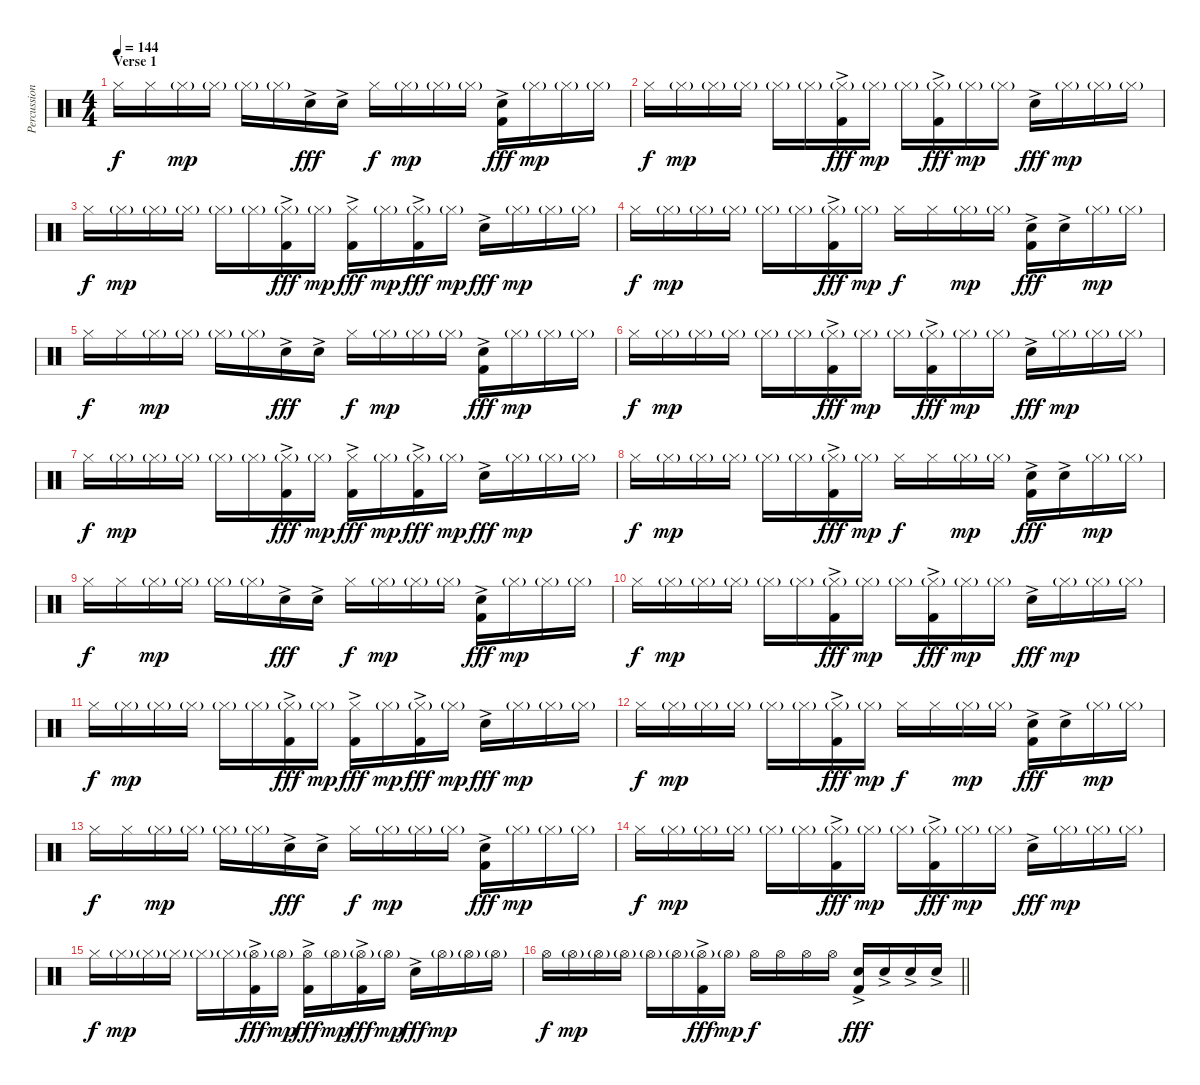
\track ("Percussion" "Percussion") {instrument percussion}
\staff {score}
\articulation defaults
\ts (4 4)
\section ("" "Verse 1")
\tempo 144
\clef neutral
\ks c "Hi-Hat (closed)".16{dy f} "Hi-Hat (closed)".16 "Hi-Hat (closed)"{g}.16{dy mp} "Hi-Hat (closed)"{g}.16 "Hi-Hat (closed)"{g}.16 "Hi-Hat (closed)"{g}.16 "Electric Snare (hit)"{ac}.16{dy fff} "Electric Snare (hit)"{ac}.16 "Hi-Hat (closed)".16{dy f} "Hi-Hat (closed)"{g}.16{dy mp} "Hi-Hat (closed)"{g}.16 "Hi-Hat (closed)"{g}.16
("Electric Snare (hit)"{ac} "Kick (hit) 2"{ac}).16{dy fff} "Hi-Hat (closed)"{g}.16{dy mp} "Hi-Hat (closed)"{g}.16 "Hi-Hat (closed)"{g}.16 |
"Hi-Hat (closed)".16{dy f} "Hi-Hat (closed)"{g}.16{dy mp} "Hi-Hat (closed)"{g}.16 "Hi-Hat (closed)"{g}.16 "Hi-Hat (closed)"{g}.16 "Hi-Hat (closed)"{g}.16 ("Hi-Hat (closed)"{g} "Kick (hit) 2"{ac}).16{dy fff} "Hi-Hat (closed)"{g}.16{dy mp} "Hi-Hat (closed)"{g}.16 ("Hi-Hat (closed)"{g} "Kick (hit) 2"{ac}).16{dy fff} "Hi-Hat (closed)"{g}.16{dy mp} "Hi-Hat (closed)"{g}.16 "Electric Snare (hit)"{ac}.16{dy fff} "Hi-Hat (closed)"{g}.16{dy mp} "Hi-Hat (closed)"{g}.16 "Hi-Hat (closed)"{g}.16 |
"Hi-Hat (closed)".16{dy f} "Hi-Hat (closed)"{g}.16{dy mp} "Hi-Hat (closed)"{g}.16 "Hi-Hat (closed)"{g}.16 "Hi-Hat (closed)"{g}.16 "Hi-Hat (closed)"{g}.16 ("Hi-Hat (closed)"{g} "Kick (hit) 2"{ac}).16{dy fff} "Hi-Hat (closed)"{g}.16{dy mp} ("Hi-Hat (closed)" "Kick (hit) 2"{ac}).16{dy fff} "Hi-Hat (closed)"{g}.16{dy mp} ("Hi-Hat (closed)"{g} "Kick (hit) 2"{ac}).16{dy fff} "Hi-Hat (closed)"{g}.16{dy mp} "Electric Snare (hit)"{ac}.16{dy fff} "Hi-Hat (closed)"{g}.16{dy mp} "Hi-Hat (closed)"{g}.16 "Hi-Hat (closed)"{g}.16 |
"Hi-Hat (closed)".16{dy f} "Hi-Hat (closed)"{g}.16{dy mp} "Hi-Hat (closed)"{g}.16 "Hi-Hat (closed)"{g}.16 "Hi-Hat (closed)"{g}.16 "Hi-Hat (closed)"{g}.16 ("Hi-Hat (closed)"{g} "Kick (hit) 2"{ac}).16{dy fff} "Hi-Hat (closed)"{g}.16{dy mp} "Hi-Hat (closed)".16{dy f} "Hi-Hat (closed)".16 "Hi-Hat (closed)"{g}.16{dy mp} "Hi-Hat (closed)"{g}.16 ("Electric Snare (hit)"{ac} "Kick (hit) 2"{ac}).16{dy fff} "Electric Snare (hit)"{ac}.16 "Hi-Hat (closed)"{g}.16{dy mp} "Hi-Hat (closed)"{g}.16 |
"Hi-Hat (closed)".16{dy f} "Hi-Hat (closed)".16 "Hi-Hat (closed)"{g}.16{dy mp} "Hi-Hat (closed)"{g}.16 "Hi-Hat (closed)"{g}.16 "Hi-Hat (closed)"{g}.16 "Electric Snare (hit)"{ac}.16{dy fff} "Electric Snare (hit)"{ac}.16 "Hi-Hat (closed)".16{dy f} "Hi-Hat (closed)"{g}.16{dy mp} "Hi-Hat (closed)"{g}.16 "Hi-Hat (closed)"{g}.16 ("Electric Snare (hit)"{ac} "Kick (hit) 2"{ac}).16{dy fff} "Hi-Hat (closed)"{g}.16{dy mp} "Hi-Hat (closed)"{g}.16 "Hi-Hat (closed)"{g}.16 |
"Hi-Hat (closed)".16{dy f} "Hi-Hat (closed)"{g}.16{dy mp} "Hi-Hat (closed)"{g}.16 "Hi-Hat (closed)"{g}.16 "Hi-Hat (closed)"{g}.16 "Hi-Hat (closed)"{g}.16 ("Hi-Hat (closed)"{g} "Kick (hit) 2"{ac}).16{dy fff} "Hi-Hat (closed)"{g}.16{dy mp} "Hi-Hat (closed)"{g}.16 ("Hi-Hat (closed)"{g} "Kick (hit) 2"{ac}).16{dy fff} "Hi-Hat (closed)"{g}.16{dy mp} "Hi-Hat (closed)"{g}.16 "Electric Snare (hit)"{ac}.16{dy fff} "Hi-Hat (closed)"{g}.16{dy mp} "Hi-Hat (closed)"{g}.16 "Hi-Hat (closed)"{g}.16 |
"Hi-Hat (closed)".16{dy f} "Hi-Hat (closed)"{g}.16{dy mp} "Hi-Hat (closed)"{g}.16 "Hi-Hat (closed)"{g}.16 "Hi-Hat (closed)"{g}.16 "Hi-Hat (closed)"{g}.16 ("Hi-Hat (closed)"{g} "Kick (hit) 2"{ac}).16{dy fff} "Hi-Hat (closed)"{g}.16{dy mp} ("Hi-Hat (closed)" "Kick (hit) 2"{ac}).16{dy fff} "Hi-Hat (closed)"{g}.16{dy mp} ("Hi-Hat (closed)"{g} "Kick (hit) 2"{ac}).16{dy fff} "Hi-Hat (closed)"{g}.16{dy mp} "Electric Snare (hit)"{ac}.16{dy fff} "Hi-Hat (closed)"{g}.16{dy mp} "Hi-Hat (closed)"{g}.16 "Hi-Hat (closed)"{g}.16 |
"Hi-Hat (closed)".16{dy f} "Hi-Hat (closed)"{g}.16{dy mp} "Hi-Hat (closed)"{g}.16 "Hi-Hat (closed)"{g}.16 "Hi-Hat (closed)"{g}.16 "Hi-Hat (closed)"{g}.16 ("Hi-Hat (closed)"{g} "Kick (hit) 2"{ac}).16{dy fff} "Hi-Hat (closed)"{g}.16{dy mp} "Hi-Hat (closed)".16{dy f} "Hi-Hat (closed)".16 "Hi-Hat (closed)"{g}.16{dy mp} "Hi-Hat (closed)"{g}.16 ("Electric Snare (hit)"{ac} "Kick (hit) 2"{ac}).16{dy fff} "Electric Snare (hit)"{ac}.16 "Hi-Hat (closed)"{g}.16{dy mp} "Hi-Hat (closed)"{g}.16 |
"Hi-Hat (closed)".16{dy f} "Hi-Hat (closed)".16 "Hi-Hat (closed)"{g}.16{dy mp} "Hi-Hat (closed)"{g}.16 "Hi-Hat (closed)"{g}.16 "Hi-Hat (closed)"{g}.16 "Electric Snare (hit)"{ac}.16{dy fff} "Electric Snare (hit)"{ac}.16 "Hi-Hat (closed)".16{dy f} "Hi-Hat (closed)"{g}.16{dy mp} "Hi-Hat (closed)"{g}.16 "Hi-Hat (closed)"{g}.16 ("Electric Snare (hit)"{ac} "Kick (hit) 2"{ac}).16{dy fff} "Hi-Hat (closed)"{g}.16{dy mp} "Hi-Hat (closed)"{g}.16 "Hi-Hat (closed)"{g}.16 |
"Hi-Hat (closed)".16{dy f} "Hi-Hat (closed)"{g}.16{dy mp} "Hi-Hat (closed)"{g}.16 "Hi-Hat (closed)"{g}.16 "Hi-Hat (closed)"{g}.16 "Hi-Hat (closed)"{g}.16 ("Hi-Hat (closed)"{g} "Kick (hit) 2"{ac}).16{dy fff} "Hi-Hat (closed)"{g}.16{dy mp} "Hi-Hat (closed)"{g}.16 ("Hi-Hat (closed)"{g} "Kick (hit) 2"{ac}).16{dy fff} "Hi-Hat (closed)"{g}.16{dy mp} "Hi-Hat (closed)"{g}.16 "Electric Snare (hit)"{ac}.16{dy fff} "Hi-Hat (closed)"{g}.16{dy mp} "Hi-Hat (closed)"{g}.16 "Hi-Hat (closed)"{g}.16 |
"Hi-Hat (closed)".16{dy f} "Hi-Hat (closed)"{g}.16{dy mp} "Hi-Hat (closed)"{g}.16 "Hi-Hat (closed)"{g}.16 "Hi-Hat (closed)"{g}.16 "Hi-Hat (closed)"{g}.16 ("Hi-Hat (closed)"{g} "Kick (hit) 2"{ac}).16{dy fff} "Hi-Hat (closed)"{g}.16{dy mp} ("Hi-Hat (closed)" "Kick (hit) 2"{ac}).16{dy fff} "Hi-Hat (closed)"{g}.16{dy mp} ("Hi-Hat (closed)"{g} "Kick (hit) 2"{ac}).16{dy fff} "Hi-Hat (closed)"{g}.16{dy mp} "Electric Snare (hit)"{ac}.16{dy fff} "Hi-Hat (closed)"{g}.16{dy mp} "Hi-Hat (closed)"{g}.16 "Hi-Hat (closed)"{g}.16 |
"Hi-Hat (closed)".16{dy f} "Hi-Hat (closed)"{g}.16{dy mp} "Hi-Hat (closed)"{g}.16 "Hi-Hat (closed)"{g}.16 "Hi-Hat (closed)"{g}.16 "Hi-Hat (closed)"{g}.16 ("Hi-Hat (closed)"{g} "Kick (hit) 2"{ac}).16{dy fff} "Hi-Hat (closed)"{g}.16{dy mp} "Hi-Hat (closed)".16{dy f} "Hi-Hat (closed)".16 "Hi-Hat (closed)"{g}.16{dy mp} "Hi-Hat (closed)"{g}.16 ("Electric Snare (hit)"{ac} "Kick (hit) 2"{ac}).16{dy fff} "Electric Snare (hit)"{ac}.16 "Hi-Hat (closed)"{g}.16{dy mp} "Hi-Hat (closed)"{g}.16 |
"Hi-Hat (closed)".16{dy f} "Hi-Hat (closed)".16 "Hi-Hat (closed)"{g}.16{dy mp} "Hi-Hat (closed)"{g}.16 "Hi-Hat (closed)"{g}.16 "Hi-Hat (closed)"{g}.16 "Electric Snare (hit)"{ac}.16{dy fff} "Electric Snare (hit)"{ac}.16 "Hi-Hat (closed)".16{dy f} "Hi-Hat (closed)"{g}.16{dy mp} "Hi-Hat (closed)"{g}.16 "Hi-Hat (closed)"{g}.16 ("Electric Snare (hit)"{ac} "Kick (hit) 2"{ac}).16{dy fff} "Hi-Hat (closed)"{g}.16{dy mp} "Hi-Hat (closed)"{g}.16 "Hi-Hat (closed)"{g}.16 |
"Hi-Hat (closed)".16{dy f} "Hi-Hat (closed)"{g}.16{dy mp} "Hi-Hat (closed)"{g}.16 "Hi-Hat (closed)"{g}.16 "Hi-Hat (closed)"{g}.16 "Hi-Hat (closed)"{g}.16 ("Hi-Hat (closed)"{g} "Kick (hit) 2"{ac}).16{dy fff} "Hi-Hat (closed)"{g}.16{dy mp} "Hi-Hat (closed)"{g}.16 ("Hi-Hat (closed)"{g} "Kick (hit) 2"{ac}).16{dy fff} "Hi-Hat (closed)"{g}.16{dy mp} "Hi-Hat (closed)"{g}.16 "Electric Snare (hit)"{ac}.16{dy fff} "Hi-Hat (closed)"{g}.16{dy mp} "Hi-Hat (closed)"{g}.16 "Hi-Hat (closed)"{g}.16 |
"Hi-Hat (closed)".16{dy f} "Hi-Hat (closed)"{g}.16{dy mp} "Hi-Hat (closed)"{g}.16 "Hi-Hat (closed)"{g}.16 "Hi-Hat (closed)"{g}.16 "Hi-Hat (closed)"{g}.16 ("Hi-Hat (open)"{g} "Kick (hit) 2"{ac}).16{dy fff} "Hi-Hat (open)"{g}.16{dy mp} ("Hi-Hat (open)" "Kick (hit) 2"{ac}).16{dy fff} "Hi-Hat (open)"{g}.16{dy mp} ("Hi-Hat (open)"{g} "Kick (hit) 2"{ac}).16{dy fff} "Hi-Hat (open)"{g}.16{dy mp} "Electric Snare (hit)"{ac}.16{dy fff} "Hi-Hat (open)"{g}.16{dy mp} "Hi-Hat (open)"{g}.16 "Hi-Hat (open)"{g}.16 |
\barLineRight lightlight "Hi-Hat (open)".16{dy f} "Hi-Hat (open)"{g}.16{dy mp} "Hi-Hat (open)"{g}.16 "Hi-Hat (open)"{g}.16 "Hi-Hat (open)"{g}.16 "Hi-Hat (open)"{g}.16
("Hi-Hat (open)"{g} "Kick (hit) 2"{ac}).16{dy fff} "Hi-Hat (open)"{g}.16{dy mp} "Hi-Hat (open)".16{dy f} "Hi-Hat (open)".16 "Hi-Hat (open)".16 "Hi-Hat (open)".16 ("Electric Snare (hit)"{ac} "Kick (hit) 2"{ac}).16{dy fff} "Electric Snare (hit)"{ac}.16 "Electric Snare (hit)"{ac}.16 "Electric Snare (hit)"{ac}.16
